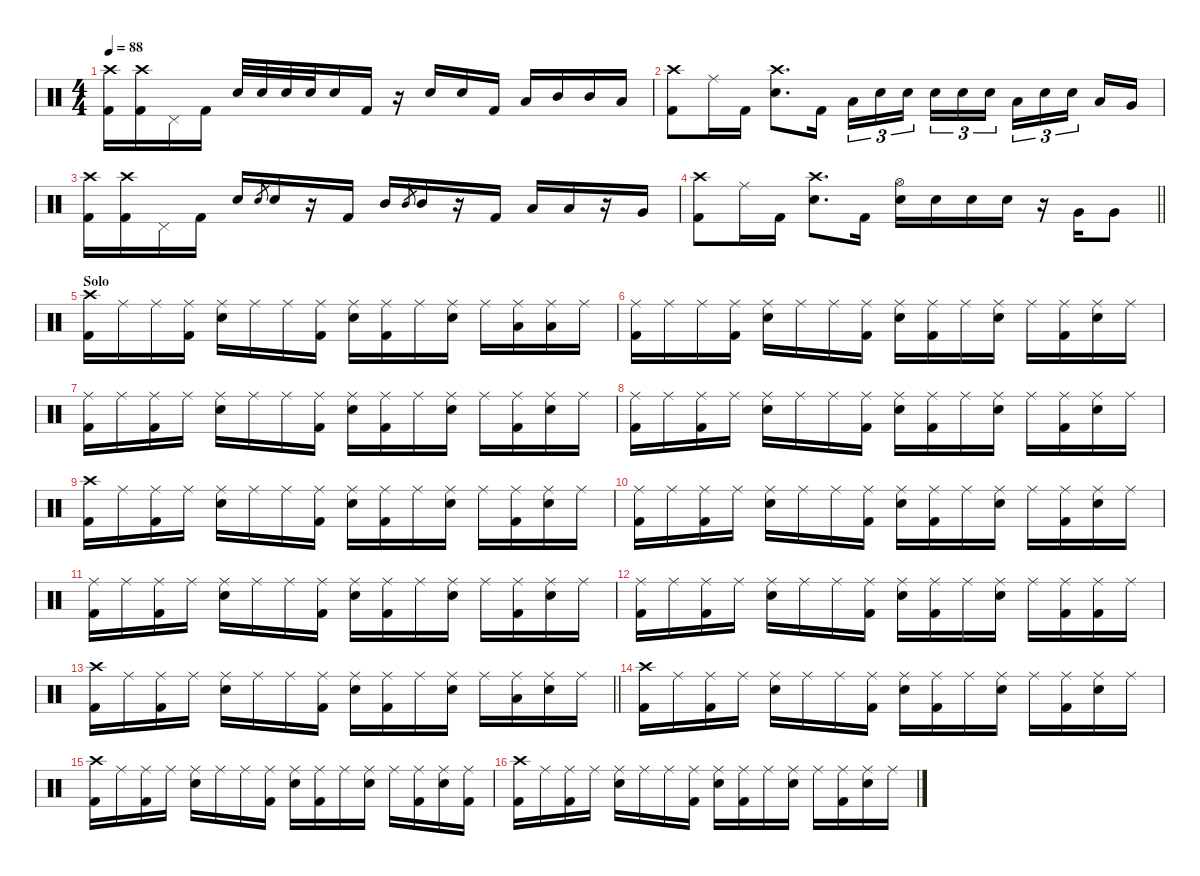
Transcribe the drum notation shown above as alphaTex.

\defaultSystemsLayout 4
\hideDynamics
\bracketExtendMode nobrackets
\singleTrackTrackNamePolicy hidden
\multiTrackTrackNamePolicy hidden
\firstSystemTrackNameMode fullname
\firstSystemTrackNameOrientation horizontal
\otherSystemsTrackNameOrientation horizontal
\track ("Drums" "drm.") {instrument percussion}
\staff {score}
\articulation defaults
\ts (4 4)
\tempo 88
\clef neutral
\ks c
("Crash high (hit)" "Kick (hit) 2").16{dy f beam Down} ("Crash high (hit)" "Kick (hit) 2").16{beam Down} "Pedal Hi-Hat (hit)".16{beam Down} "Kick (hit) 2".16{beam Down} "Snare (hit) 2".32{beam Up} "Snare (hit) 2".32{beam Up} "Snare (hit) 2".32{beam Up} "Snare (hit) 2".32{beam Up} "Snare (hit) 2".16{beam Up} "Kick (hit) 2".16{beam Up} r.16{beam Up} "Snare (hit) 2".16{beam Up} "Snare (hit) 2".16{beam Up} "Kick (hit) 2".16{beam Up} "Low Tom (hit)".16{beam Up} "Mid Tom (hit)".16{dy mp beam Up} "Mid Tom (hit)".16{beam Up} "Low Tom (hit)".16{dy f beam Up} |
("Crash high (hit)" "Kick (hit) 2").8{beam Down} "Ride (middle)".16{beam Down} "Kick (hit) 2".16{beam Down} ("Crash high (hit)" "Snare (hit) 2").8{d beam Down} "Kick (hit) 2".16{beam Down} "Low Tom (hit)".16{tu (3 2) beam Down} "Snare (hit) 2".16{tu (3 2) beam Down} "Snare (hit) 2".16{tu (3 2) beam Down} "Snare (hit) 2".16{tu (3 2) beam Down} "Snare (hit) 2".16{tu (3 2) beam Down} "Snare (hit) 2".16{tu (3 2) beam Down} "Low Tom (hit)".16{tu (3 2) beam Down} "Snare (hit) 2".16{tu (3 2) beam Down} "Snare (hit) 2".16{tu (3 2) beam Down} "Low Tom (hit)".16{beam Up} "Very Low Tom (hit)".16{beam Up} |
("Crash high (hit)" "Kick (hit) 2").16{beam Down} ("Crash high (hit)" "Kick (hit) 2").16{beam Down} "Pedal Hi-Hat (hit)".16{beam Down} "Kick (hit) 2".16{beam Down} "Snare (hit) 2".16{beam Up} "Snare (hit) 2".8{gr dy mf beam Up} "Snare (hit) 2".16{dy f beam Up} r.16{beam Up} "Kick (hit) 2".16{beam Up} "Mid Tom (hit)".16{beam Up} "Mid Tom (hit)".8{gr dy mf beam Up} "Mid Tom (hit)".16{dy f beam Up} r.16{beam Up} "Kick (hit) 2".16{beam Up} "Low Tom (hit)".16{beam Up} "Low Tom (hit)".16{beam Up} r.16{beam Up} "Very Low Tom (hit)".16{beam Up} |
\barLineRight lightlight
("Crash high (hit)" "Kick (hit) 2").8{beam Down} "Ride (middle)".16{beam Down} "Kick (hit) 2".16{beam Down} ("Crash high (hit)" "Snare (hit) 2").8{d beam Down} "Kick (hit) 2".16{beam Down} ("Hi-Hat (open)" "Snare (hit) 2").16{beam Down} "Snare (hit) 2".16{beam Down} "Snare (hit) 2".16{beam Down} "Snare (hit) 2".16{beam Down} r.16{beam Down} "Very Low Tom (hit)".16{beam Up} "Very Low Tom (hit)".8{beam Up} |
\section ("" "Solo")
("Crash high (hit)" "Kick (hit) 2").16{beam Down} "Ride (middle)".16{beam Down} "Ride (middle)".16{beam Down} ("Ride (middle)" "Kick (hit) 2").16{beam Down} ("Ride (middle)" "Snare (hit) 2").16{beam Down} "Ride (middle)".16{beam Down} "Ride (middle)".16{beam Down} ("Ride (middle)" "Kick (hit) 2").16{beam Down} ("Ride (middle)" "Snare (hit) 2").16{beam Down} ("Ride (middle)" "Kick (hit) 2").16{beam Down} "Ride (middle)".16{beam Down} ("Ride (middle)" "Snare (hit) 2").16{beam Down} "Ride (middle)".16{beam Down} ("Ride (middle)" "Low Tom (hit)").16{beam Down} ("Ride (middle)" "Low Tom (hit)").16{beam Down} "Ride (middle)".16{beam Down} |
("Ride (middle)" "Kick (hit) 2").16{beam Down} "Ride (middle)".16{beam Down} "Ride (middle)".16{beam Down} ("Ride (middle)" "Kick (hit) 2").16{beam Down} ("Ride (middle)" "Snare (hit) 2").16{beam Down} "Ride (middle)".16{beam Down} "Ride (middle)".16{beam Down} ("Ride (middle)" "Kick (hit) 2").16{beam Down} ("Ride (middle)" "Snare (hit) 2").16{beam Down} ("Ride (middle)" "Kick (hit) 2").16{beam Down} "Ride (middle)".16{beam Down} ("Ride (middle)" "Snare (hit) 2").16{beam Down} "Ride (middle)".16{beam Down} ("Ride (middle)" "Kick (hit) 2").16{beam Down} ("Ride (middle)" "Snare (hit) 2").16{beam Down} "Ride (middle)".16{beam Down} |
("Ride (middle)" "Kick (hit) 2").16{beam Down} "Ride (middle)".16{beam Down} ("Ride (middle)" "Kick (hit) 2").16{beam Down} "Ride (middle)".16{beam Down} ("Ride (middle)" "Snare (hit) 2").16{beam Down} "Ride (middle)".16{beam Down} "Ride (middle)".16{beam Down} ("Ride (middle)" "Kick (hit) 2").16{beam Down} ("Ride (middle)" "Snare (hit) 2").16{beam Down} ("Ride (middle)" "Kick (hit) 2").16{beam Down} "Ride (middle)".16{beam Down} ("Ride (middle)" "Snare (hit) 2").16{beam Down} "Ride (middle)".16{beam Down} ("Ride (middle)" "Kick (hit) 2").16{beam Down} ("Ride (middle)" "Snare (hit) 2").16{beam Down} "Ride (middle)".16{beam Down} |
("Ride (middle)" "Kick (hit) 2").16{beam Down} "Ride (middle)".16{beam Down} ("Ride (middle)" "Kick (hit) 2").16{beam Down} "Ride (middle)".16{beam Down} ("Ride (middle)" "Snare (hit) 2").16{beam Down} "Ride (middle)".16{beam Down} "Ride (middle)".16{beam Down} ("Ride (middle)" "Kick (hit) 2").16{beam Down} ("Ride (middle)" "Snare (hit) 2").16{beam Down} ("Ride (middle)" "Kick (hit) 2").16{beam Down} "Ride (middle)".16{beam Down} ("Ride (middle)" "Snare (hit) 2").16{beam Down} "Ride (middle)".16{beam Down} ("Ride (middle)" "Kick (hit) 2").16{beam Down} ("Ride (middle)" "Snare (hit) 2").16{beam Down} "Ride (middle)".16{beam Down} |
("Crash high (hit)" "Kick (hit) 2").16{beam Down} "Ride (middle)".16{beam Down} ("Ride (middle)" "Kick (hit) 2").16{beam Down} "Ride (middle)".16{beam Down} ("Ride (middle)" "Snare (hit) 2").16{beam Down} "Ride (middle)".16{beam Down} "Ride (middle)".16{beam Down} ("Ride (middle)" "Kick (hit) 2").16{beam Down} ("Ride (middle)" "Snare (hit) 2").16{beam Down} ("Ride (middle)" "Kick (hit) 2").16{beam Down} "Ride (middle)".16{beam Down} ("Ride (middle)" "Snare (hit) 2").16{beam Down} "Ride (middle)".16{beam Down} ("Ride (middle)" "Kick (hit) 2").16{beam Down} ("Ride (middle)" "Snare (hit) 2").16{beam Down} "Ride (middle)".16{beam Down} |
("Ride (middle)" "Kick (hit) 2").16{beam Down} "Ride (middle)".16{beam Down} ("Ride (middle)" "Kick (hit) 2").16{beam Down} "Ride (middle)".16{beam Down} ("Ride (middle)" "Snare (hit) 2").16{beam Down} "Ride (middle)".16{beam Down} "Ride (middle)".16{beam Down} ("Ride (middle)" "Kick (hit) 2").16{beam Down} ("Ride (middle)" "Snare (hit) 2").16{beam Down} ("Ride (middle)" "Kick (hit) 2").16{beam Down} "Ride (middle)".16{beam Down} ("Ride (middle)" "Snare (hit) 2").16{beam Down} "Ride (middle)".16{beam Down} ("Ride (middle)" "Kick (hit) 2").16{beam Down} ("Ride (middle)" "Snare (hit) 2").16{beam Down} "Ride (middle)".16{beam Down} |
("Ride (middle)" "Kick (hit) 2").16{beam Down} "Ride (middle)".16{beam Down} ("Ride (middle)" "Kick (hit) 2").16{beam Down} "Ride (middle)".16{beam Down} ("Ride (middle)" "Snare (hit) 2").16{beam Down} "Ride (middle)".16{beam Down} "Ride (middle)".16{beam Down} ("Ride (middle)" "Kick (hit) 2").16{beam Down} ("Ride (middle)" "Snare (hit) 2").16{beam Down} ("Ride (middle)" "Kick (hit) 2").16{beam Down} "Ride (middle)".16{beam Down} ("Ride (middle)" "Snare (hit) 2").16{beam Down} "Ride (middle)".16{beam Down} ("Ride (middle)" "Kick (hit) 2").16{beam Down} ("Ride (middle)" "Snare (hit) 2").16{beam Down} "Ride (middle)".16{beam Down} |
("Ride (middle)" "Kick (hit) 2").16{beam Down} "Ride (middle)".16{beam Down} ("Ride (middle)" "Kick (hit) 2").16{beam Down} "Ride (middle)".16{beam Down} ("Ride (middle)" "Snare (hit) 2").16{beam Down} "Ride (middle)".16{beam Down} "Ride (middle)".16{beam Down} ("Ride (middle)" "Kick (hit) 2").16{beam Down} ("Ride (middle)" "Snare (hit) 2").16{beam Down} ("Ride (middle)" "Kick (hit) 2").16{beam Down} "Ride (middle)".16{beam Down} ("Ride (middle)" "Snare (hit) 2").16{beam Down} "Ride (middle)".16{beam Down} ("Ride (middle)" "Kick (hit) 2").16{beam Down} ("Ride (middle)" "Kick (hit) 2").16{beam Down} "Ride (middle)".16{beam Down} |
\barLineRight lightlight
("Crash high (hit)" "Kick (hit) 2").16{beam Down} "Ride (middle)".16{beam Down} ("Ride (middle)" "Kick (hit) 2").16{beam Down} "Ride (middle)".16{beam Down} ("Ride (middle)" "Snare (hit) 2").16{beam Down} "Ride (middle)".16{beam Down} "Ride (middle)".16{beam Down} ("Ride (middle)" "Kick (hit) 2").16{beam Down} ("Ride (middle)" "Snare (hit) 2").16{beam Down} ("Ride (middle)" "Kick (hit) 2").16{beam Down} "Ride (middle)".16{beam Down} ("Ride (middle)" "Snare (hit) 2").16{beam Down} "Ride (middle)".16{beam Down} ("Ride (middle)" "Low Tom (hit)").16{beam Down} ("Ride (middle)" "Snare (hit) 2").16{beam Down} "Ride (middle)".16{beam Down} |
("Crash high (hit)" "Kick (hit) 2").16{beam Down} "Ride (middle)".16{beam Down} ("Ride (middle)" "Kick (hit) 2").16{beam Down} "Ride (middle)".16{beam Down} ("Ride (middle)" "Snare (hit) 2").16{beam Down} "Ride (middle)".16{beam Down} "Ride (middle)".16{beam Down} ("Ride (middle)" "Kick (hit) 2").16{beam Down} ("Ride (middle)" "Snare (hit) 2").16{beam Down} ("Ride (middle)" "Kick (hit) 2").16{beam Down} "Ride (middle)".16{beam Down} ("Ride (middle)" "Snare (hit) 2").16{beam Down} "Ride (middle)".16{beam Down} ("Ride (middle)" "Kick (hit) 2").16{beam Down} ("Ride (middle)" "Snare (hit) 2").16{beam Down} "Ride (middle)".16{beam Down} |
("Crash high (hit)" "Kick (hit) 2").16{beam Down} "Ride (middle)".16{beam Down} ("Ride (middle)" "Kick (hit) 2").16{beam Down} "Ride (middle)".16{beam Down} ("Ride (middle)" "Snare (hit) 2").16{beam Down} "Ride (middle)".16{beam Down} "Ride (middle)".16{beam Down} ("Ride (middle)" "Kick (hit) 2").16{beam Down} ("Ride (middle)" "Snare (hit) 2").16{beam Down} ("Ride (middle)" "Kick (hit) 2").16{beam Down} "Ride (middle)".16{beam Down} ("Ride (middle)" "Snare (hit) 2").16{beam Down} "Ride (middle)".16{beam Down} ("Ride (middle)" "Kick (hit) 2").16{beam Down} ("Ride (middle)" "Snare (hit) 2").16{beam Down} ("Ride (middle)" "Kick (hit) 2").16{beam Down} |
("Crash high (hit)" "Kick (hit) 2").16{beam Down} "Ride (middle)".16{beam Down} ("Ride (middle)" "Kick (hit) 2").16{beam Down} "Ride (middle)".16{beam Down} ("Ride (middle)" "Snare (hit) 2").16{beam Down} "Ride (middle)".16{beam Down} "Ride (middle)".16{beam Down} ("Ride (middle)" "Kick (hit) 2").16{beam Down} ("Ride (middle)" "Snare (hit) 2").16{beam Down} ("Ride (middle)" "Kick (hit) 2").16{beam Down} "Ride (middle)".16{beam Down} ("Ride (middle)" "Snare (hit) 2").16{beam Down} "Ride (middle)".16{beam Down} ("Ride (middle)" "Kick (hit) 2").16{beam Down} ("Ride (middle)" "Snare (hit) 2").16{beam Down} "Ride (middle)".16{beam Down}
